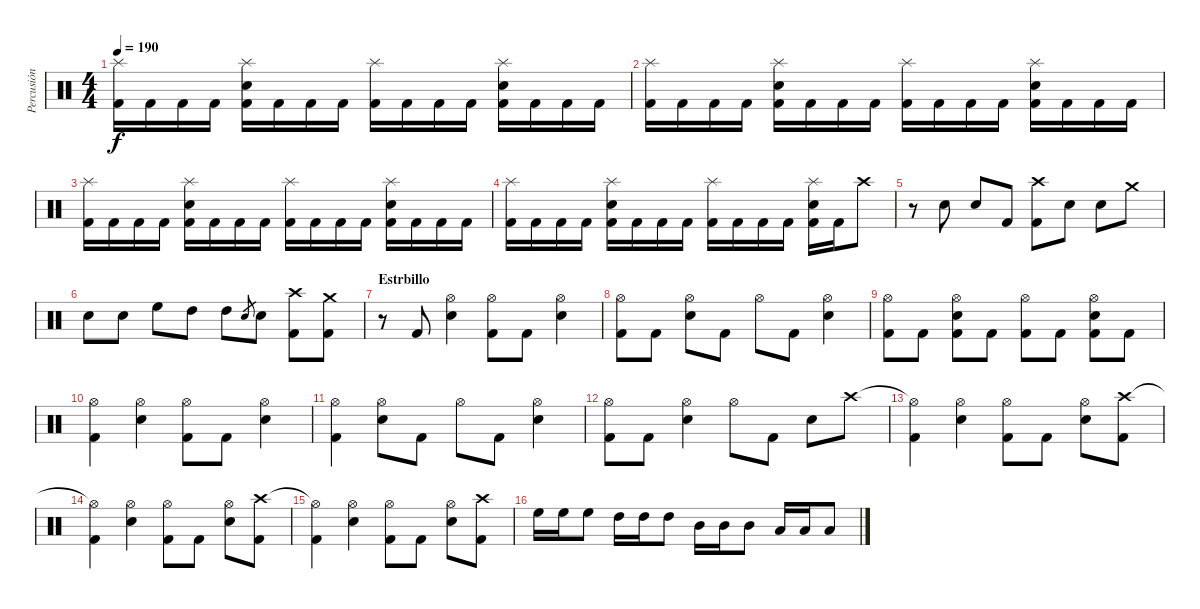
\track ("Percusión" "Percusión") {instrument percussion}
\staff {score}
\articulation defaults
\ts (4 4)
\tempo 190
\clef neutral
\ks c
("Splash (hit)" "Kick (hit) 2").16{dy f} "Kick (hit) 2".16 "Kick (hit) 2".16 "Kick (hit) 2".16 ("Splash (hit)" "Snare (hit) 2" "Kick (hit) 2").16 "Kick (hit) 2".16 "Kick (hit) 2".16 "Kick (hit) 2".16 ("Splash (hit)" "Kick (hit) 2").16 "Kick (hit) 2".16 "Kick (hit) 2".16 "Kick (hit) 2".16 ("Splash (hit)" "Snare (hit) 2" "Kick (hit) 2").16 "Kick (hit) 2".16 "Kick (hit) 2".16 "Kick (hit) 2".16 |
("Splash (hit)" "Kick (hit) 2").16 "Kick (hit) 2".16 "Kick (hit) 2".16 "Kick (hit) 2".16 ("Splash (hit)" "Snare (hit) 2" "Kick (hit) 2").16 "Kick (hit) 2".16 "Kick (hit) 2".16 "Kick (hit) 2".16 ("Splash (hit)" "Kick (hit) 2").16 "Kick (hit) 2".16 "Kick (hit) 2".16 "Kick (hit) 2".16 ("Splash (hit)" "Snare (hit) 2" "Kick (hit) 2").16 "Kick (hit) 2".16 "Kick (hit) 2".16 "Kick (hit) 2".16 |
("Splash (hit)" "Kick (hit) 2").16 "Kick (hit) 2".16 "Kick (hit) 2".16 "Kick (hit) 2".16 ("Splash (hit)" "Snare (hit) 2" "Kick (hit) 2").16 "Kick (hit) 2".16 "Kick (hit) 2".16 "Kick (hit) 2".16 ("Splash (hit)" "Kick (hit) 2").16 "Kick (hit) 2".16 "Kick (hit) 2".16 "Kick (hit) 2".16 ("Splash (hit)" "Snare (hit) 2" "Kick (hit) 2").16 "Kick (hit) 2".16 "Kick (hit) 2".16 "Kick (hit) 2".16 |
("Splash (hit)" "Kick (hit) 2").16 "Kick (hit) 2".16 "Kick (hit) 2".16 "Kick (hit) 2".16 ("Splash (hit)" "Snare (hit) 2" "Kick (hit) 2").16 "Kick (hit) 2".16 "Kick (hit) 2".16 "Kick (hit) 2".16 ("Splash (hit)" "Kick (hit) 2").16 "Kick (hit) 2".16 "Kick (hit) 2".16 "Kick (hit) 2".16 ("Splash (hit)" "Snare (hit) 2" "Kick (hit) 2").16 "Kick (hit) 2".16 "Crash high (hit)".8 |
r.8 "Snare (hit) 2".8 "Snare (hit) 2".8 "Kick (hit) 2".8 ("Crash high (hit)" "Kick (hit) 2").8 "Snare (hit) 2".8 "Snare (hit) 2".8 "Crash medium (hit)".8 |
"Snare (hit) 2".8 "Snare (hit) 2".8 "High Floor Tom (hit)".8 "High Tom (hit)".8 "High Tom (hit)".8 "Snare (hit) 2".8{gr} "Snare (hit) 2".8 ("Crash high (hit)" "Kick (hit) 2").8 ("Crash medium (hit)" "Kick (hit) 2").8 |
\section ("" "Estrbillo")
r.8 "Kick (hit) 2".8 ("Hi-Hat (open)" "Snare (hit) 2").4 ("Hi-Hat (open)" "Kick (hit) 2").8 "Kick (hit) 2".8 ("Hi-Hat (open)" "Snare (hit) 2").4 |
("Hi-Hat (open)" "Kick (hit) 2").8 "Kick (hit) 2".8 ("Hi-Hat (open)" "Snare (hit) 2").8 "Kick (hit) 2".8 "Hi-Hat (open)".8 "Kick (hit) 2".8 ("Hi-Hat (open)" "Snare (hit) 2").4 |
("Hi-Hat (open)" "Kick (hit) 2").8 "Kick (hit) 2".8 ("Hi-Hat (open)" "Snare (hit) 2" "Kick (hit) 2").8 "Kick (hit) 2".8 ("Hi-Hat (open)" "Kick (hit) 2").8 "Kick (hit) 2".8 ("Hi-Hat (open)" "Snare (hit) 2" "Kick (hit) 2").8 "Kick (hit) 2".8 |
("Hi-Hat (open)" "Kick (hit) 2").4 ("Hi-Hat (open)" "Snare (hit) 2").4 ("Hi-Hat (open)" "Kick (hit) 2").8 "Kick (hit) 2".8 ("Hi-Hat (open)" "Snare (hit) 2").4 |
("Hi-Hat (open)" "Kick (hit) 2").4 ("Hi-Hat (open)" "Snare (hit) 2").8 "Kick (hit) 2".8 "Hi-Hat (open)".8 "Kick (hit) 2".8 ("Hi-Hat (open)" "Snare (hit) 2").4 |
("Hi-Hat (open)" "Kick (hit) 2").8 "Kick (hit) 2".8 ("Hi-Hat (open)" "Snare (hit) 2").4 "Hi-Hat (open)".8 "Kick (hit) 2".8 "Snare (hit) 2".8 "Crash high (hit)".8 |
("Hi-Hat (open)"{t} "Kick (hit) 2").4 ("Hi-Hat (open)" "Snare (hit) 2").4 ("Hi-Hat (open)" "Kick (hit) 2").8 "Kick (hit) 2".8 ("Hi-Hat (open)" "Snare (hit) 2").8 ("Crash high (hit)" "Kick (hit) 2").8 |
("Hi-Hat (open)"{t} "Kick (hit) 2").4 ("Hi-Hat (open)" "Snare (hit) 2").4 ("Hi-Hat (open)" "Kick (hit) 2").8 "Kick (hit) 2".8 ("Hi-Hat (open)" "Snare (hit) 2").8 ("Crash high (hit)" "Kick (hit) 2").8 |
("Hi-Hat (open)"{t} "Kick (hit) 2").4 ("Hi-Hat (open)" "Snare (hit) 2").4 ("Hi-Hat (open)" "Kick (hit) 2").8 "Kick (hit) 2".8 ("Hi-Hat (open)" "Snare (hit) 2").8 ("Crash high (hit)" "Kick (hit) 2").8 |
"High Floor Tom (hit)".16 "High Floor Tom (hit)".16 "High Floor Tom (hit)".8 "High Tom (hit)".16 "High Tom (hit)".16 "High Tom (hit)".8 "Mid Tom (hit)".16 "Mid Tom (hit)".16 "Mid Tom (hit)".8 "Low Tom (hit)".16 "Low Tom (hit)".16 "Low Tom (hit)".8
